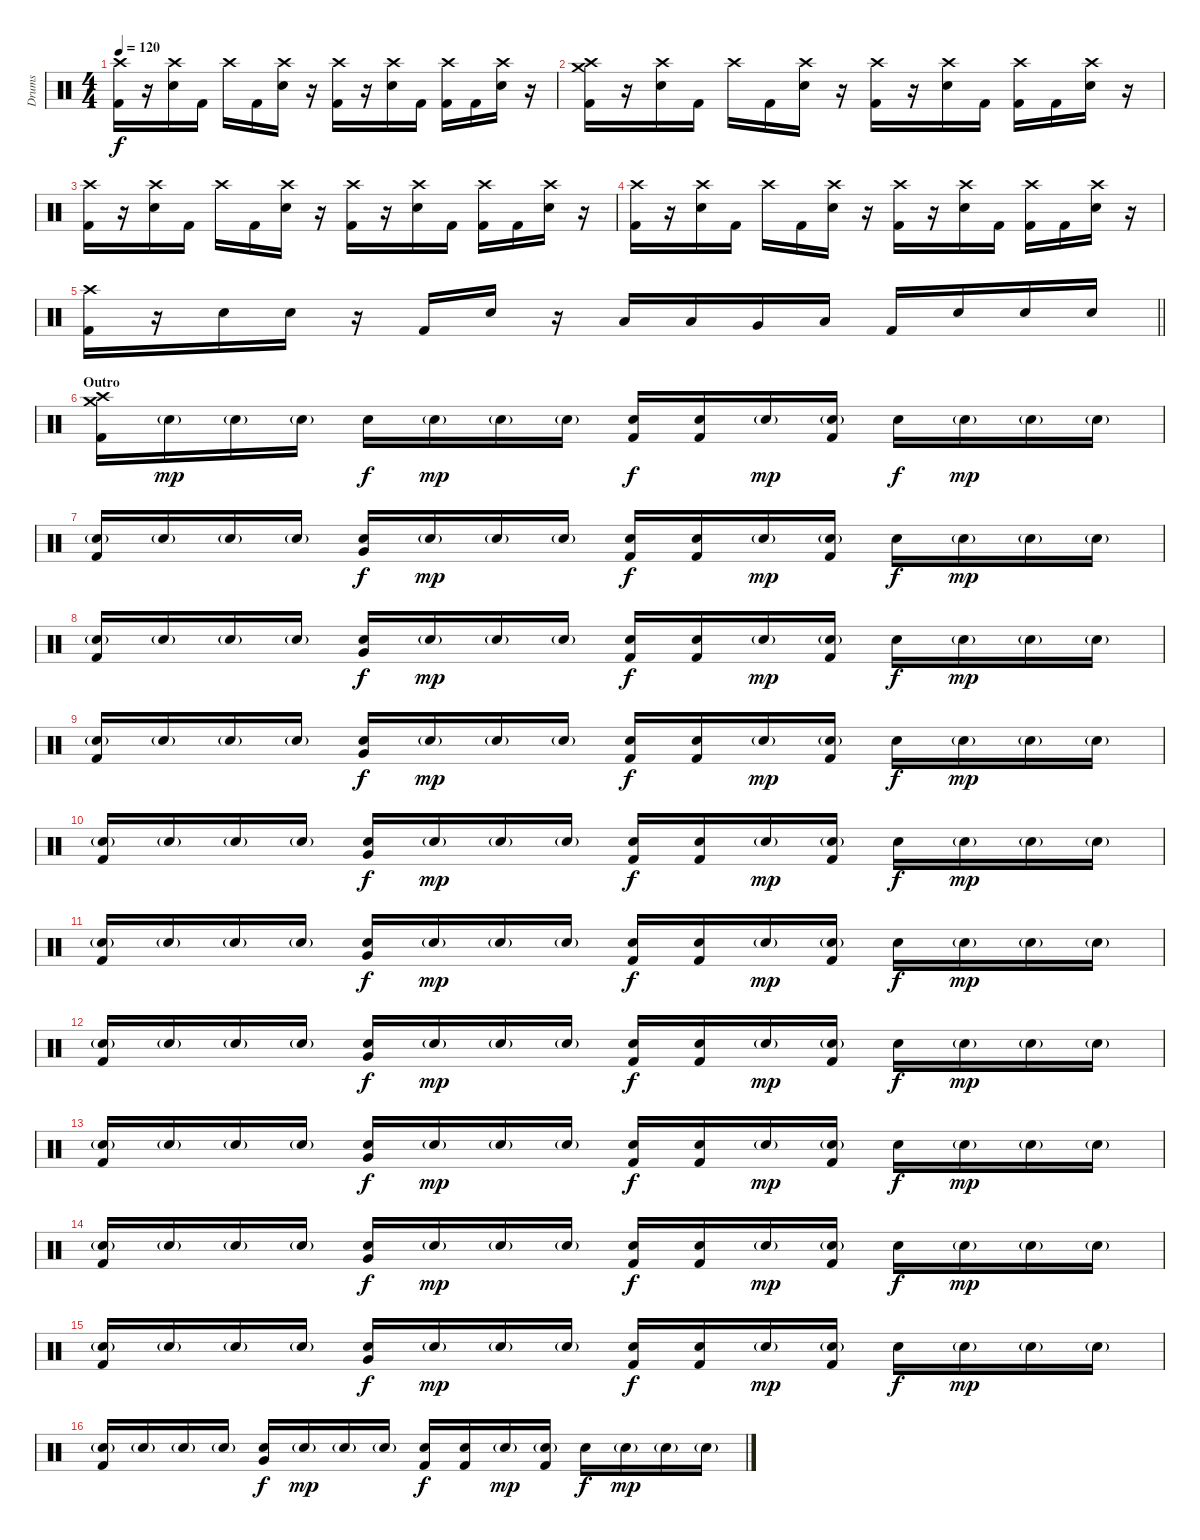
\track ("Drums" "Drums") {instrument percussion}
\staff {score}
\articulation defaults
\ts (4 4)
\tempo 120
\clef neutral
\ks c
("Crash high (hit)" "Kick (hit) 2").16{dy f} r.16 ("Crash high (hit)" "Electric Snare (hit)").16 "Kick (hit) 2".16 "Crash high (hit)".16 "Kick (hit) 2".16 ("Crash high (hit)" "Electric Snare (hit)").16 r.16 ("Crash high (hit)" "Kick (hit) 2").16 r.16 ("Crash high (hit)" "Electric Snare (hit)").16 "Kick (hit) 2".16 ("Crash high (hit)" "Kick (hit) 2").16 "Kick (hit) 2".16 ("Crash high (hit)" "Electric Snare (hit)").16 r.16 |
("Crash high (hit)" "Crash medium (hit)" "Kick (hit) 2").16 r.16 ("Crash high (hit)" "Electric Snare (hit)").16 "Kick (hit) 2".16 "Crash high (hit)".16 "Kick (hit) 2".16 ("Crash high (hit)" "Electric Snare (hit)").16 r.16 ("Crash high (hit)" "Kick (hit) 2").16 r.16 ("Crash high (hit)" "Electric Snare (hit)").16 "Kick (hit) 2".16 ("Crash high (hit)" "Kick (hit) 2").16 "Kick (hit) 2".16 ("Crash high (hit)" "Electric Snare (hit)").16 r.16 |
("Crash high (hit)" "Kick (hit) 2").16 r.16 ("Crash high (hit)" "Electric Snare (hit)").16 "Kick (hit) 2".16 "Crash high (hit)".16 "Kick (hit) 2".16 ("Crash high (hit)" "Electric Snare (hit)").16 r.16 ("Crash high (hit)" "Kick (hit) 2").16 r.16 ("Crash high (hit)" "Electric Snare (hit)").16 "Kick (hit) 2".16 ("Crash high (hit)" "Kick (hit) 2").16 "Kick (hit) 2".16 ("Crash high (hit)" "Electric Snare (hit)").16 r.16 |
("Crash high (hit)" "Kick (hit) 2").16 r.16 ("Crash high (hit)" "Electric Snare (hit)").16 "Kick (hit) 2".16 "Crash high (hit)".16 "Kick (hit) 2".16 ("Crash high (hit)" "Electric Snare (hit)").16 r.16 ("Crash high (hit)" "Kick (hit) 2").16 r.16 ("Crash high (hit)" "Electric Snare (hit)").16 "Kick (hit) 2".16 ("Crash high (hit)" "Kick (hit) 2").16 "Kick (hit) 2".16 ("Crash high (hit)" "Electric Snare (hit)").16 r.16 |
\barLineRight lightlight
("Crash high (hit)" "Kick (hit) 2").16 r.16 "Electric Snare (hit)".16 "Electric Snare (hit)".16 r.16 "Kick (hit) 2".16 "Electric Snare (hit)".16 r.16 "Low Tom (hit)".16 "Low Tom (hit)".16 "Very Low Tom (hit)".16 "Low Floor Tom (hit)".16 "Kick (hit) 2".16 "Electric Snare (hit)".16 "Electric Snare (hit)".16 "Electric Snare (hit)".16 |
\section ("" "Outro")
("Crash high (hit)" "Crash medium (hit)" "Kick (hit) 2").16 "Electric Snare (hit)"{g}.16{dy mp} "Electric Snare (hit)"{g}.16 "Electric Snare (hit)"{g}.16 "Electric Snare (hit)".16{dy f} "Electric Snare (hit)"{g}.16{dy mp} "Electric Snare (hit)"{g}.16 "Electric Snare (hit)"{g}.16 ("Electric Snare (hit)" "Kick (hit) 2").16{dy f} ("Electric Snare (hit)" "Kick (hit) 2").16 "Electric Snare (hit)"{g}.16{dy mp} ("Electric Snare (hit)"{g} "Kick (hit) 2").16 "Electric Snare (hit)".16{dy f} "Electric Snare (hit)"{g}.16{dy mp} "Electric Snare (hit)"{g}.16 "Electric Snare (hit)"{g}.16 |
("Electric Snare (hit)"{g} "Kick (hit) 2").16 "Electric Snare (hit)"{g}.16 "Electric Snare (hit)"{g}.16 "Electric Snare (hit)"{g}.16 ("Very Low Tom (hit)" "Electric Snare (hit)").16{dy f} "Electric Snare (hit)"{g}.16{dy mp} "Electric Snare (hit)"{g}.16 "Electric Snare (hit)"{g}.16 ("Electric Snare (hit)" "Kick (hit) 2").16{dy f} ("Electric Snare (hit)" "Kick (hit) 2").16 "Electric Snare (hit)"{g}.16{dy mp} ("Electric Snare (hit)"{g} "Kick (hit) 2").16 "Electric Snare (hit)".16{dy f} "Electric Snare (hit)"{g}.16{dy mp} "Electric Snare (hit)"{g}.16 "Electric Snare (hit)"{g}.16 |
("Electric Snare (hit)"{g} "Kick (hit) 2").16 "Electric Snare (hit)"{g}.16 "Electric Snare (hit)"{g}.16 "Electric Snare (hit)"{g}.16 ("Very Low Tom (hit)" "Electric Snare (hit)").16{dy f} "Electric Snare (hit)"{g}.16{dy mp} "Electric Snare (hit)"{g}.16 "Electric Snare (hit)"{g}.16 ("Electric Snare (hit)" "Kick (hit) 2").16{dy f} ("Electric Snare (hit)" "Kick (hit) 2").16 "Electric Snare (hit)"{g}.16{dy mp} ("Electric Snare (hit)"{g} "Kick (hit) 2").16 "Electric Snare (hit)".16{dy f} "Electric Snare (hit)"{g}.16{dy mp} "Electric Snare (hit)"{g}.16 "Electric Snare (hit)"{g}.16 |
("Electric Snare (hit)"{g} "Kick (hit) 2").16 "Electric Snare (hit)"{g}.16 "Electric Snare (hit)"{g}.16 "Electric Snare (hit)"{g}.16 ("Very Low Tom (hit)" "Electric Snare (hit)").16{dy f} "Electric Snare (hit)"{g}.16{dy mp} "Electric Snare (hit)"{g}.16 "Electric Snare (hit)"{g}.16 ("Electric Snare (hit)" "Kick (hit) 2").16{dy f} ("Electric Snare (hit)" "Kick (hit) 2").16 "Electric Snare (hit)"{g}.16{dy mp} ("Electric Snare (hit)"{g} "Kick (hit) 2").16 "Electric Snare (hit)".16{dy f} "Electric Snare (hit)"{g}.16{dy mp} "Electric Snare (hit)"{g}.16 "Electric Snare (hit)"{g}.16 |
("Electric Snare (hit)"{g} "Kick (hit) 2").16 "Electric Snare (hit)"{g}.16 "Electric Snare (hit)"{g}.16 "Electric Snare (hit)"{g}.16 ("Very Low Tom (hit)" "Electric Snare (hit)").16{dy f} "Electric Snare (hit)"{g}.16{dy mp} "Electric Snare (hit)"{g}.16 "Electric Snare (hit)"{g}.16 ("Electric Snare (hit)" "Kick (hit) 2").16{dy f} ("Electric Snare (hit)" "Kick (hit) 2").16 "Electric Snare (hit)"{g}.16{dy mp} ("Electric Snare (hit)"{g} "Kick (hit) 2").16 "Electric Snare (hit)".16{dy f} "Electric Snare (hit)"{g}.16{dy mp} "Electric Snare (hit)"{g}.16 "Electric Snare (hit)"{g}.16 |
("Electric Snare (hit)"{g} "Kick (hit) 2").16 "Electric Snare (hit)"{g}.16 "Electric Snare (hit)"{g}.16 "Electric Snare (hit)"{g}.16 ("Very Low Tom (hit)" "Electric Snare (hit)").16{dy f} "Electric Snare (hit)"{g}.16{dy mp} "Electric Snare (hit)"{g}.16 "Electric Snare (hit)"{g}.16 ("Electric Snare (hit)" "Kick (hit) 2").16{dy f} ("Electric Snare (hit)" "Kick (hit) 2").16 "Electric Snare (hit)"{g}.16{dy mp} ("Electric Snare (hit)"{g} "Kick (hit) 2").16 "Electric Snare (hit)".16{dy f} "Electric Snare (hit)"{g}.16{dy mp} "Electric Snare (hit)"{g}.16 "Electric Snare (hit)"{g}.16 |
("Electric Snare (hit)"{g} "Kick (hit) 2").16 "Electric Snare (hit)"{g}.16 "Electric Snare (hit)"{g}.16 "Electric Snare (hit)"{g}.16 ("Very Low Tom (hit)" "Electric Snare (hit)").16{dy f} "Electric Snare (hit)"{g}.16{dy mp} "Electric Snare (hit)"{g}.16 "Electric Snare (hit)"{g}.16 ("Electric Snare (hit)" "Kick (hit) 2").16{dy f} ("Electric Snare (hit)" "Kick (hit) 2").16 "Electric Snare (hit)"{g}.16{dy mp} ("Electric Snare (hit)"{g} "Kick (hit) 2").16 "Electric Snare (hit)".16{dy f} "Electric Snare (hit)"{g}.16{dy mp} "Electric Snare (hit)"{g}.16 "Electric Snare (hit)"{g}.16 |
("Electric Snare (hit)"{g} "Kick (hit) 2").16 "Electric Snare (hit)"{g}.16 "Electric Snare (hit)"{g}.16 "Electric Snare (hit)"{g}.16 ("Very Low Tom (hit)" "Electric Snare (hit)").16{dy f} "Electric Snare (hit)"{g}.16{dy mp} "Electric Snare (hit)"{g}.16 "Electric Snare (hit)"{g}.16 ("Electric Snare (hit)" "Kick (hit) 2").16{dy f} ("Electric Snare (hit)" "Kick (hit) 2").16 "Electric Snare (hit)"{g}.16{dy mp} ("Electric Snare (hit)"{g} "Kick (hit) 2").16 "Electric Snare (hit)".16{dy f} "Electric Snare (hit)"{g}.16{dy mp} "Electric Snare (hit)"{g}.16 "Electric Snare (hit)"{g}.16 |
("Electric Snare (hit)"{g} "Kick (hit) 2").16 "Electric Snare (hit)"{g}.16 "Electric Snare (hit)"{g}.16 "Electric Snare (hit)"{g}.16 ("Very Low Tom (hit)" "Electric Snare (hit)").16{dy f} "Electric Snare (hit)"{g}.16{dy mp} "Electric Snare (hit)"{g}.16 "Electric Snare (hit)"{g}.16 ("Electric Snare (hit)" "Kick (hit) 2").16{dy f} ("Electric Snare (hit)" "Kick (hit) 2").16 "Electric Snare (hit)"{g}.16{dy mp} ("Electric Snare (hit)"{g} "Kick (hit) 2").16 "Electric Snare (hit)".16{dy f} "Electric Snare (hit)"{g}.16{dy mp} "Electric Snare (hit)"{g}.16 "Electric Snare (hit)"{g}.16 |
("Electric Snare (hit)"{g} "Kick (hit) 2").16 "Electric Snare (hit)"{g}.16 "Electric Snare (hit)"{g}.16 "Electric Snare (hit)"{g}.16 ("Very Low Tom (hit)" "Electric Snare (hit)").16{dy f} "Electric Snare (hit)"{g}.16{dy mp} "Electric Snare (hit)"{g}.16 "Electric Snare (hit)"{g}.16 ("Electric Snare (hit)" "Kick (hit) 2").16{dy f} ("Electric Snare (hit)" "Kick (hit) 2").16 "Electric Snare (hit)"{g}.16{dy mp} ("Electric Snare (hit)"{g} "Kick (hit) 2").16 "Electric Snare (hit)".16{dy f} "Electric Snare (hit)"{g}.16{dy mp} "Electric Snare (hit)"{g}.16 "Electric Snare (hit)"{g}.16 |
("Electric Snare (hit)"{g} "Kick (hit) 2").16 "Electric Snare (hit)"{g}.16 "Electric Snare (hit)"{g}.16 "Electric Snare (hit)"{g}.16 ("Very Low Tom (hit)" "Electric Snare (hit)").16{dy f} "Electric Snare (hit)"{g}.16{dy mp} "Electric Snare (hit)"{g}.16 "Electric Snare (hit)"{g}.16 ("Electric Snare (hit)" "Kick (hit) 2").16{dy f} ("Electric Snare (hit)" "Kick (hit) 2").16 "Electric Snare (hit)"{g}.16{dy mp} ("Electric Snare (hit)"{g} "Kick (hit) 2").16 "Electric Snare (hit)".16{dy f} "Electric Snare (hit)"{g}.16{dy mp} "Electric Snare (hit)"{g}.16 "Electric Snare (hit)"{g}.16
